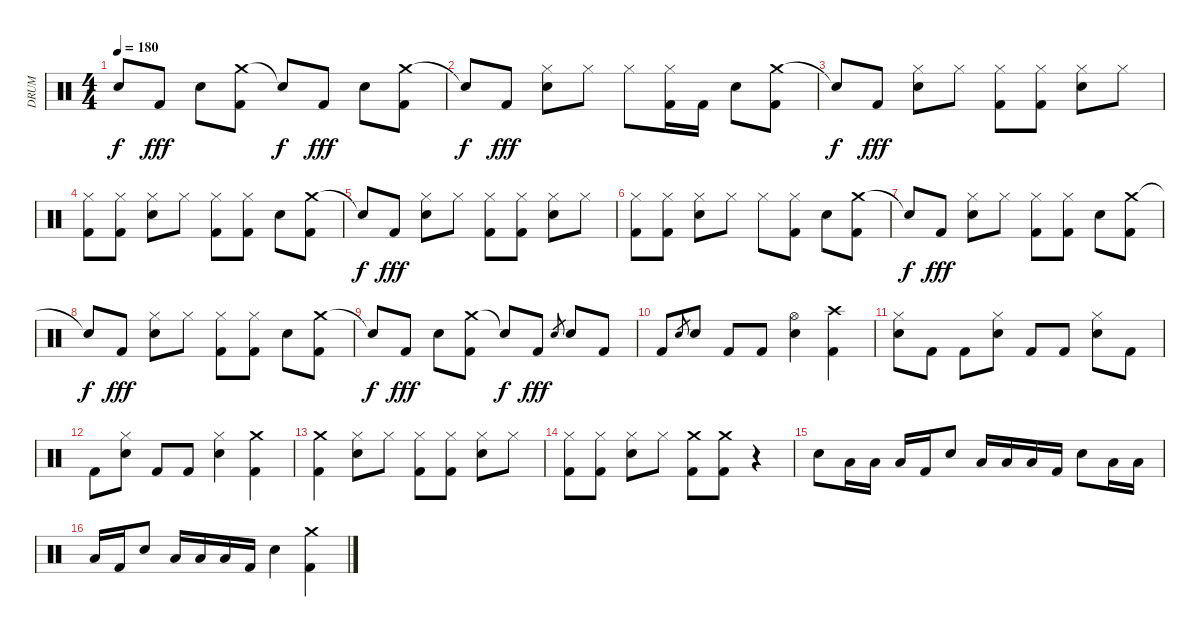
\track ("DRUM" "DRUM") {instrument percussion}
\staff {score}
\articulation defaults
\ts (4 4)
\tempo 180
\clef neutral
\ks c "Snare (hit)"{t}.8{dy f} "Kick (hit) 2".8{dy fff} "Snare (hit) 2".8
("Crash medium (hit)" "Kick (hit) 2").8 "Snare (hit)"{t}.8{dy f} "Kick (hit) 2".8{dy fff} "Snare (hit) 2".8 ("Crash medium (hit)" "Kick (hit) 2").8 |
"Snare (hit)"{t}.8{dy f} "Kick (hit) 2".8{dy fff} ("Hi-Hat (closed)" "Snare (hit) 2").8 "Hi-Hat (closed)".8 "Hi-Hat (closed)".8 ("Hi-Hat (closed)" "Kick (hit) 2").16 "Kick (hit) 2".16 "Snare (hit) 2".8 ("Crash medium (hit)" "Kick (hit) 2").8 |
"Snare (hit)"{t}.8{dy f} "Kick (hit) 2".8{dy fff} ("Hi-Hat (closed)" "Snare (hit) 2").8 "Hi-Hat (closed)".8 ("Hi-Hat (closed)" "Kick (hit) 2").8 ("Hi-Hat (closed)" "Kick (hit) 2").8 ("Hi-Hat (closed)" "Snare (hit) 2").8 "Hi-Hat (closed)".8 |
("Hi-Hat (closed)" "Kick (hit) 2").8 ("Hi-Hat (closed)" "Kick (hit) 2").8 ("Hi-Hat (closed)" "Snare (hit) 2").8 "Hi-Hat (closed)".8 ("Hi-Hat (closed)" "Kick (hit) 2").8 ("Hi-Hat (closed)" "Kick (hit) 2").8 "Snare (hit) 2".8 ("Crash medium (hit)" "Kick (hit) 2").8 |
"Snare (hit)"{t}.8{dy f} "Kick (hit) 2".8{dy fff} ("Hi-Hat (closed)" "Snare (hit) 2").8 "Hi-Hat (closed)".8 ("Hi-Hat (closed)" "Kick (hit) 2").8 ("Hi-Hat (closed)" "Kick (hit) 2").8 ("Hi-Hat (closed)" "Snare (hit) 2").8 "Hi-Hat (closed)".8 |
("Hi-Hat (closed)" "Kick (hit) 2").8 ("Hi-Hat (closed)" "Kick (hit) 2").8 ("Hi-Hat (closed)" "Snare (hit) 2").8 "Hi-Hat (closed)".8 "Hi-Hat (closed)".8 ("Hi-Hat (closed)" "Kick (hit) 2").8 "Snare (hit) 2".8 ("Crash medium (hit)" "Kick (hit) 2").8 |
"Snare (hit)"{t}.8{dy f} "Kick (hit) 2".8{dy fff} ("Hi-Hat (closed)" "Snare (hit) 2").8 "Hi-Hat (closed)".8 ("Hi-Hat (closed)" "Kick (hit) 2").8 ("Hi-Hat (closed)" "Kick (hit) 2").8 "Snare (hit) 2".8 ("Crash medium (hit)" "Kick (hit) 2").8 |
"Snare (hit)"{t}.8{dy f} "Kick (hit) 2".8{dy fff} ("Hi-Hat (closed)" "Snare (hit) 2").8 "Hi-Hat (closed)".8 ("Hi-Hat (closed)" "Kick (hit) 2").8 ("Hi-Hat (closed)" "Kick (hit) 2").8 "Snare (hit) 2".8 ("Crash medium (hit)" "Kick (hit) 2").8 |
"Snare (hit)"{t}.8{dy f} "Kick (hit) 2".8{dy fff} "Snare (hit) 2".8 ("Crash medium (hit)" "Kick (hit) 2").8 "Snare (hit)"{t}.8{dy f} "Kick (hit) 2".8{dy fff} "Snare (hit) 2".8{gr} "Snare (hit) 2".8 "Kick (hit) 2".8 |
"Kick (hit) 2".8 "Snare (hit) 2".8{gr} "Snare (hit) 2".8 "Kick (hit) 2".8 "Kick (hit) 2".8 ("Hi-Hat (open)" "Snare (hit) 2").4 ("Crash high (hit)" "Kick (hit) 2").4 |
("Hi-Hat (closed)" "Snare (hit) 2").8 "Kick (hit) 2".8 "Kick (hit) 2".8 ("Hi-Hat (closed)" "Snare (hit) 2").8 "Kick (hit) 2".8 "Kick (hit) 2".8 ("Hi-Hat (closed)" "Snare (hit) 2").8 "Kick (hit) 2".8 |
"Kick (hit) 2".8 ("Hi-Hat (closed)" "Snare (hit) 2").8 "Kick (hit) 2".8 "Kick (hit) 2".8 ("Hi-Hat (closed)" "Snare (hit) 2").4 ("Crash medium (hit)" "Kick (hit) 2").4 |
("Crash medium (hit)" "Kick (hit) 2").4 ("Hi-Hat (closed)" "Snare (hit) 2").8 "Hi-Hat (closed)".8 ("Hi-Hat (closed)" "Kick (hit) 2").8 ("Hi-Hat (closed)" "Kick (hit) 2").8 ("Hi-Hat (closed)" "Snare (hit) 2").8 "Hi-Hat (closed)".8 |
("Hi-Hat (closed)" "Kick (hit) 2").8 ("Hi-Hat (closed)" "Kick (hit) 2").8 ("Hi-Hat (closed)" "Snare (hit) 2").8 "Hi-Hat (closed)".8 ("Crash medium (hit)" "Kick (hit) 2").8 ("Crash medium (hit)" "Kick (hit) 2").8 r.4 |
"Snare (hit) 2".8 "Low Floor Tom (hit)".16 "Low Floor Tom (hit)".16 "Low Floor Tom (hit)".16 "Kick (hit) 2".16 "Snare (hit) 2".8 "Low Floor Tom (hit)".16 "Low Floor Tom (hit)".16 "Low Floor Tom (hit)".16 "Kick (hit) 2".16 "Snare (hit) 2".8 "Low Floor Tom (hit)".16 "Low Floor Tom (hit)".16 |
"Low Floor Tom (hit)".16 "Kick (hit) 2".16 "Snare (hit) 2".8 "Low Floor Tom (hit)".16 "Low Floor Tom (hit)".16 "Low Floor Tom (hit)".16 "Kick (hit) 2".16 "Snare (hit) 2".4 ("Crash medium (hit)" "Kick (hit) 2").4
